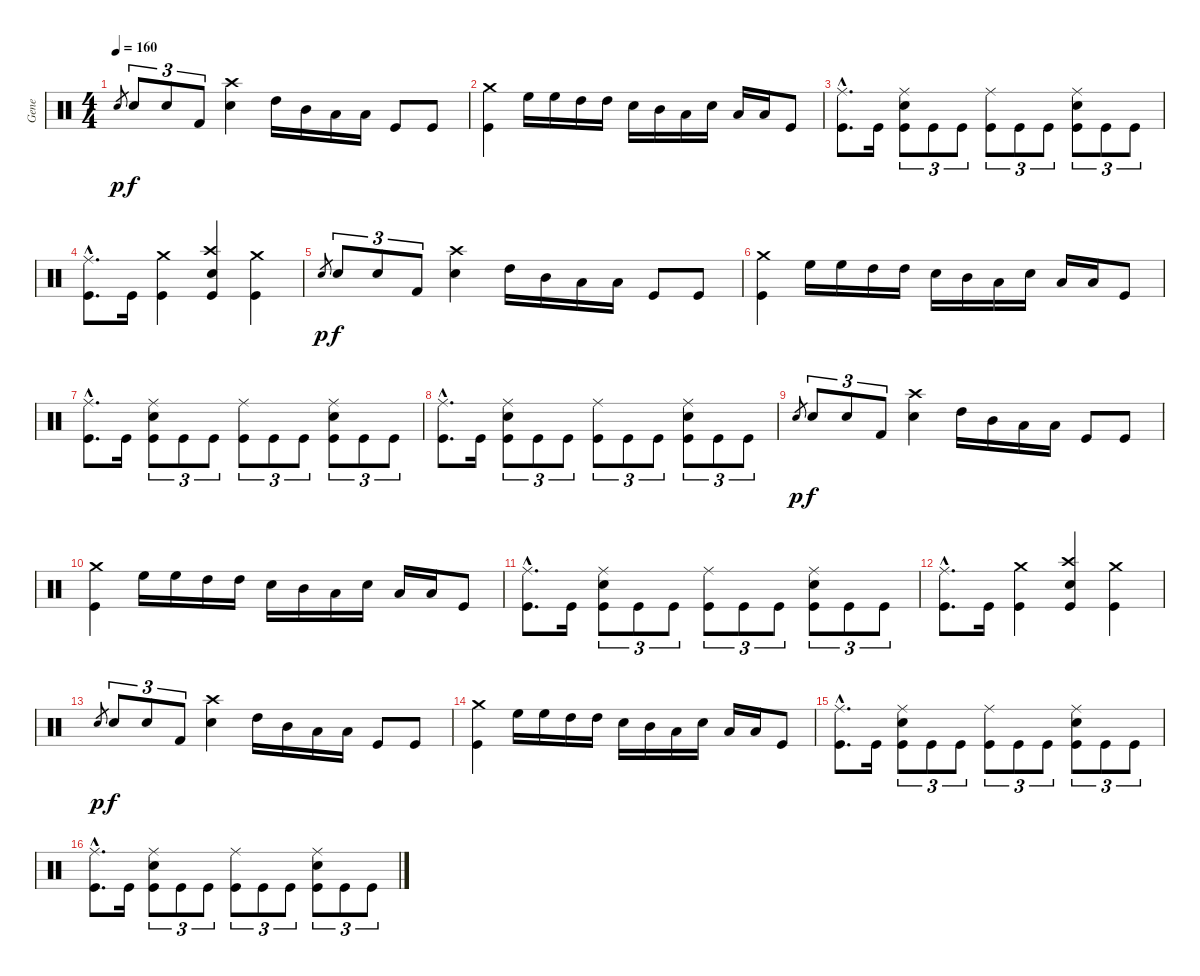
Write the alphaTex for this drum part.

\track ("Gene" "Gene") {instrument percussion}
\staff {score}
\articulation defaults
\ts (4 4)
\tempo 160
\clef neutral
\ks c "Snare (hit) 2".8{gr dy p} "Snare (hit) 2".8{tu (3 2) dy f} "Snare (hit) 2".8{tu (3 2)} "Kick (hit) 2".8{tu (3 2)}
("Crash high (hit)" "Snare (hit) 2").4 "High Tom (hit)".16 "Mid Tom (hit)".16 "Low Tom (hit)".16 "Low Floor Tom (hit)".16 "Kick (hit)".8 "Kick (hit)".8 |
("Crash medium (hit)" "Kick (hit)").4 "High Floor Tom (hit)".16 "High Floor Tom (hit)".16 "High Tom (hit)".16 "High Tom (hit)".16 "Snare (hit) 2".16 "Mid Tom (hit)".16 "Low Tom (hit)".16 "Snare (hit) 2".16 "Low Floor Tom (hit)".16 "Low Floor Tom (hit)".16 "Kick (hit)".8 |
("Kick (hit)"{hac} "Ride (middle)"{hac}).8{d} "Kick (hit)".16 ("Kick (hit)" "Snare (hit) 2" "Ride (middle)").8{tu (3 2)} "Kick (hit)".8{tu (3 2)} "Kick (hit)".8{tu (3 2)} ("Kick (hit)" "Ride (middle)").8{tu (3 2)} "Kick (hit)".8{tu (3 2)} "Kick (hit)".8{tu (3 2)} ("Kick (hit)" "Snare (hit) 2" "Ride (middle)").8{tu (3 2)} "Kick (hit)".8{tu (3 2)} "Kick (hit)".8{tu (3 2)} |
("Kick (hit)"{hac} "Ride (middle)"{hac}).8{d} "Kick (hit)".16 ("Kick (hit)" "Crash medium (hit)").4 ("Kick (hit)" "Snare (hit) 2" "Crash high (hit)").4 ("Kick (hit)" "Crash medium (hit)").4 |
"Snare (hit) 2".8{gr dy p} "Snare (hit) 2".8{tu (3 2) dy f} "Snare (hit) 2".8{tu (3 2)} "Kick (hit) 2".8{tu (3 2)} ("Crash high (hit)" "Snare (hit) 2").4 "High Tom (hit)".16 "Mid Tom (hit)".16 "Low Tom (hit)".16 "Low Floor Tom (hit)".16 "Kick (hit)".8 "Kick (hit)".8 |
("Crash medium (hit)" "Kick (hit)").4 "High Floor Tom (hit)".16 "High Floor Tom (hit)".16 "High Tom (hit)".16 "High Tom (hit)".16 "Snare (hit) 2".16 "Mid Tom (hit)".16 "Low Tom (hit)".16 "Snare (hit) 2".16 "Low Floor Tom (hit)".16 "Low Floor Tom (hit)".16 "Kick (hit)".8 |
("Kick (hit)"{hac} "Ride (middle)"{hac}).8{d} "Kick (hit)".16 ("Kick (hit)" "Snare (hit) 2" "Ride (middle)").8{tu (3 2)} "Kick (hit)".8{tu (3 2)} "Kick (hit)".8{tu (3 2)} ("Kick (hit)" "Ride (middle)").8{tu (3 2)} "Kick (hit)".8{tu (3 2)} "Kick (hit)".8{tu (3 2)} ("Kick (hit)" "Snare (hit) 2" "Ride (middle)").8{tu (3 2)} "Kick (hit)".8{tu (3 2)} "Kick (hit)".8{tu (3 2)} |
("Kick (hit)"{hac} "Ride (middle)"{hac}).8{d} "Kick (hit)".16 ("Kick (hit)" "Snare (hit) 2" "Ride (middle)").8{tu (3 2)} "Kick (hit)".8{tu (3 2)} "Kick (hit)".8{tu (3 2)} ("Kick (hit)" "Ride (middle)").8{tu (3 2)} "Kick (hit)".8{tu (3 2)} "Kick (hit)".8{tu (3 2)} ("Kick (hit)" "Snare (hit) 2" "Ride (middle)").8{tu (3 2)} "Kick (hit)".8{tu (3 2)} "Kick (hit)".8{tu (3 2)} |
"Snare (hit) 2".8{gr dy p} "Snare (hit) 2".8{tu (3 2) dy f} "Snare (hit) 2".8{tu (3 2)} "Kick (hit) 2".8{tu (3 2)} ("Crash high (hit)" "Snare (hit) 2").4 "High Tom (hit)".16 "Mid Tom (hit)".16 "Low Tom (hit)".16 "Low Floor Tom (hit)".16 "Kick (hit)".8 "Kick (hit)".8 |
("Crash medium (hit)" "Kick (hit)").4 "High Floor Tom (hit)".16 "High Floor Tom (hit)".16 "High Tom (hit)".16 "High Tom (hit)".16 "Snare (hit) 2".16 "Mid Tom (hit)".16 "Low Tom (hit)".16 "Snare (hit) 2".16 "Low Floor Tom (hit)".16 "Low Floor Tom (hit)".16 "Kick (hit)".8 |
("Kick (hit)"{hac} "Ride (middle)"{hac}).8{d} "Kick (hit)".16 ("Kick (hit)" "Snare (hit) 2" "Ride (middle)").8{tu (3 2)} "Kick (hit)".8{tu (3 2)} "Kick (hit)".8{tu (3 2)} ("Kick (hit)" "Ride (middle)").8{tu (3 2)} "Kick (hit)".8{tu (3 2)} "Kick (hit)".8{tu (3 2)} ("Kick (hit)" "Snare (hit) 2" "Ride (middle)").8{tu (3 2)} "Kick (hit)".8{tu (3 2)} "Kick (hit)".8{tu (3 2)} |
("Kick (hit)"{hac} "Ride (middle)"{hac}).8{d} "Kick (hit)".16 ("Kick (hit)" "Crash medium (hit)").4 ("Kick (hit)" "Snare (hit) 2" "Crash high (hit)").4 ("Kick (hit)" "Crash medium (hit)").4 |
"Snare (hit) 2".8{gr dy p} "Snare (hit) 2".8{tu (3 2) dy f} "Snare (hit) 2".8{tu (3 2)} "Kick (hit) 2".8{tu (3 2)} ("Crash high (hit)" "Snare (hit) 2").4 "High Tom (hit)".16 "Mid Tom (hit)".16 "Low Tom (hit)".16 "Low Floor Tom (hit)".16 "Kick (hit)".8 "Kick (hit)".8 |
("Crash medium (hit)" "Kick (hit)").4 "High Floor Tom (hit)".16 "High Floor Tom (hit)".16 "High Tom (hit)".16 "High Tom (hit)".16 "Snare (hit) 2".16 "Mid Tom (hit)".16 "Low Tom (hit)".16 "Snare (hit) 2".16 "Low Floor Tom (hit)".16 "Low Floor Tom (hit)".16 "Kick (hit)".8 |
("Kick (hit)"{hac} "Ride (middle)"{hac}).8{d} "Kick (hit)".16 ("Kick (hit)" "Snare (hit) 2" "Ride (middle)").8{tu (3 2)} "Kick (hit)".8{tu (3 2)} "Kick (hit)".8{tu (3 2)} ("Kick (hit)" "Ride (middle)").8{tu (3 2)} "Kick (hit)".8{tu (3 2)} "Kick (hit)".8{tu (3 2)} ("Kick (hit)" "Snare (hit) 2" "Ride (middle)").8{tu (3 2)} "Kick (hit)".8{tu (3 2)} "Kick (hit)".8{tu (3 2)} |
("Kick (hit)"{hac} "Ride (middle)"{hac}).8{d} "Kick (hit)".16 ("Kick (hit)" "Snare (hit) 2" "Ride (middle)").8{tu (3 2)} "Kick (hit)".8{tu (3 2)} "Kick (hit)".8{tu (3 2)} ("Kick (hit)" "Ride (middle)").8{tu (3 2)} "Kick (hit)".8{tu (3 2)} "Kick (hit)".8{tu (3 2)} ("Kick (hit)" "Snare (hit) 2" "Ride (middle)").8{tu (3 2)} "Kick (hit)".8{tu (3 2)} "Kick (hit)".8{tu (3 2)}
